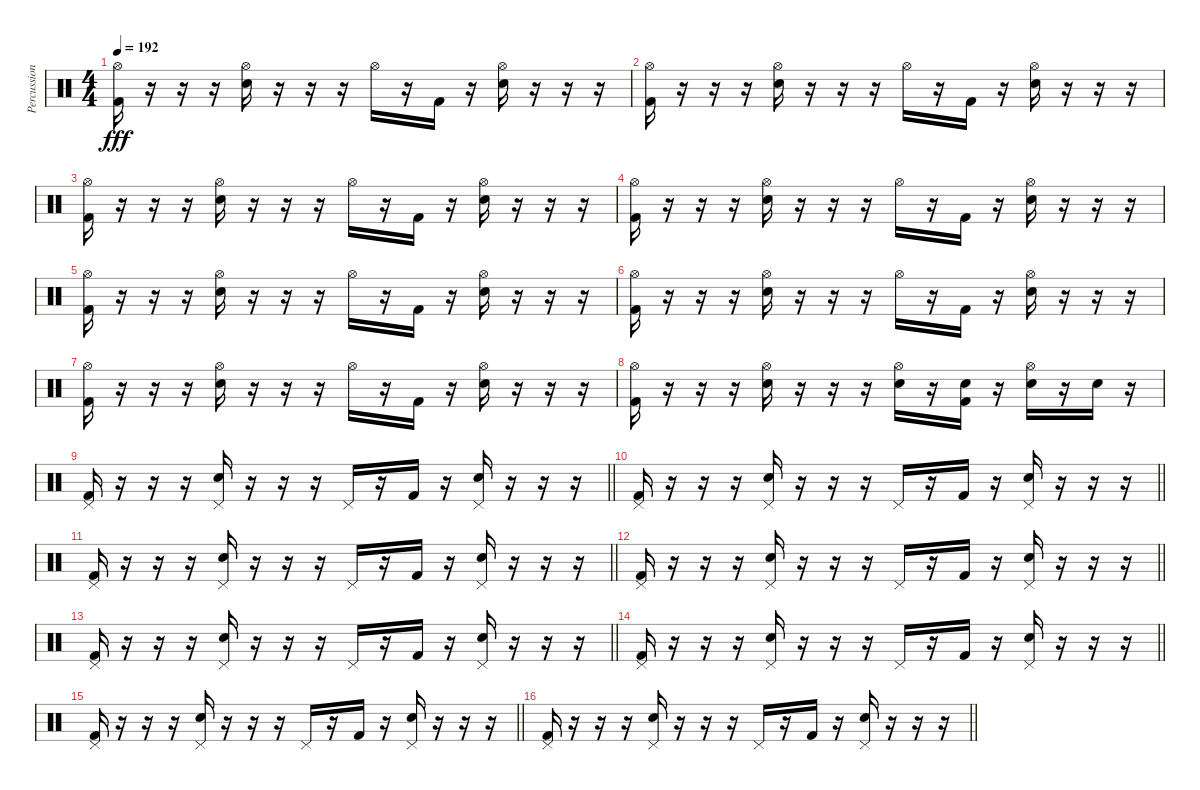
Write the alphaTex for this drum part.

\track ("Percussion" "Percussion") {instrument percussion}
\staff {score}
\articulation defaults
\ts (4 4)
\tempo 192
\clef neutral
\ks c
("Hi-Hat (open)" "Kick (hit) 2").16{dy fff} r.16 r.16 r.16 ("Hi-Hat (open)" "Electric Snare (hit)").16 r.16 r.16 r.16 "Hi-Hat (open)".16 r.16 "Kick (hit) 2".16 r.16 ("Hi-Hat (open)" "Electric Snare (hit)").16 r.16 r.16 r.16 |
("Hi-Hat (open)" "Kick (hit) 2").16 r.16 r.16 r.16 ("Hi-Hat (open)" "Electric Snare (hit)").16 r.16 r.16 r.16 "Hi-Hat (open)".16 r.16 "Kick (hit) 2".16 r.16 ("Hi-Hat (open)" "Electric Snare (hit)").16 r.16 r.16 r.16 |
("Hi-Hat (open)" "Kick (hit) 2").16 r.16 r.16 r.16 ("Hi-Hat (open)" "Electric Snare (hit)").16 r.16 r.16 r.16 "Hi-Hat (open)".16 r.16 "Kick (hit) 2".16 r.16 ("Hi-Hat (open)" "Electric Snare (hit)").16 r.16 r.16 r.16 |
("Hi-Hat (open)" "Kick (hit) 2").16 r.16 r.16 r.16 ("Hi-Hat (open)" "Electric Snare (hit)").16 r.16 r.16 r.16 "Hi-Hat (open)".16 r.16 "Kick (hit) 2".16 r.16 ("Hi-Hat (open)" "Electric Snare (hit)").16 r.16 r.16 r.16 |
("Hi-Hat (open)" "Kick (hit) 2").16 r.16 r.16 r.16 ("Hi-Hat (open)" "Electric Snare (hit)").16 r.16 r.16 r.16 "Hi-Hat (open)".16 r.16 "Kick (hit) 2".16 r.16 ("Hi-Hat (open)" "Electric Snare (hit)").16 r.16 r.16 r.16 |
("Hi-Hat (open)" "Kick (hit) 2").16 r.16 r.16 r.16 ("Hi-Hat (open)" "Electric Snare (hit)").16 r.16 r.16 r.16 "Hi-Hat (open)".16 r.16 "Kick (hit) 2".16 r.16 ("Hi-Hat (open)" "Electric Snare (hit)").16 r.16 r.16 r.16 |
("Hi-Hat (open)" "Kick (hit) 2").16 r.16 r.16 r.16 ("Hi-Hat (open)" "Electric Snare (hit)").16 r.16 r.16 r.16 "Hi-Hat (open)".16 r.16 "Kick (hit) 2".16 r.16 ("Hi-Hat (open)" "Electric Snare (hit)").16 r.16 r.16 r.16 |
("Hi-Hat (open)" "Kick (hit) 2").16 r.16 r.16 r.16 ("Hi-Hat (open)" "Electric Snare (hit)").16 r.16 r.16 r.16 ("Hi-Hat (open)" "Electric Snare (hit)").16 r.16 ("Electric Snare (hit)" "Kick (hit) 2").16 r.16 ("Hi-Hat (open)" "Electric Snare (hit)").16 r.16 "Electric Snare (hit)".16 r.16 |
\barLineRight lightlight
("Pedal Hi-Hat (hit)" "Kick (hit) 2").16 r.16 r.16 r.16 ("Pedal Hi-Hat (hit)" "Electric Snare (hit)").16 r.16 r.16 r.16 "Pedal Hi-Hat (hit)".16 r.16 "Kick (hit) 2".16 r.16 ("Pedal Hi-Hat (hit)" "Electric Snare (hit)").16 r.16 r.16 r.16 |
\barLineRight lightlight
("Pedal Hi-Hat (hit)" "Kick (hit) 2").16 r.16 r.16 r.16 ("Pedal Hi-Hat (hit)" "Electric Snare (hit)").16 r.16 r.16 r.16 "Pedal Hi-Hat (hit)".16 r.16 "Kick (hit) 2".16 r.16 ("Pedal Hi-Hat (hit)" "Electric Snare (hit)").16 r.16 r.16 r.16 |
\barLineRight lightlight
("Pedal Hi-Hat (hit)" "Kick (hit) 2").16 r.16 r.16 r.16 ("Pedal Hi-Hat (hit)" "Electric Snare (hit)").16 r.16 r.16 r.16 "Pedal Hi-Hat (hit)".16 r.16 "Kick (hit) 2".16 r.16 ("Pedal Hi-Hat (hit)" "Electric Snare (hit)").16 r.16 r.16 r.16 |
\barLineRight lightlight
("Pedal Hi-Hat (hit)" "Kick (hit) 2").16 r.16 r.16 r.16 ("Pedal Hi-Hat (hit)" "Electric Snare (hit)").16 r.16 r.16 r.16 "Pedal Hi-Hat (hit)".16 r.16 "Kick (hit) 2".16 r.16 ("Pedal Hi-Hat (hit)" "Electric Snare (hit)").16 r.16 r.16 r.16 |
\barLineRight lightlight
("Pedal Hi-Hat (hit)" "Kick (hit) 2").16 r.16 r.16 r.16 ("Pedal Hi-Hat (hit)" "Electric Snare (hit)").16 r.16 r.16 r.16 "Pedal Hi-Hat (hit)".16 r.16 "Kick (hit) 2".16 r.16 ("Pedal Hi-Hat (hit)" "Electric Snare (hit)").16 r.16 r.16 r.16 |
\barLineRight lightlight
("Pedal Hi-Hat (hit)" "Kick (hit) 2").16 r.16 r.16 r.16 ("Pedal Hi-Hat (hit)" "Electric Snare (hit)").16 r.16 r.16 r.16 "Pedal Hi-Hat (hit)".16 r.16 "Kick (hit) 2".16 r.16 ("Pedal Hi-Hat (hit)" "Electric Snare (hit)").16 r.16 r.16 r.16 |
\barLineRight lightlight
("Pedal Hi-Hat (hit)" "Kick (hit) 2").16 r.16 r.16 r.16 ("Pedal Hi-Hat (hit)" "Electric Snare (hit)").16 r.16 r.16 r.16 "Pedal Hi-Hat (hit)".16 r.16 "Kick (hit) 2".16 r.16 ("Pedal Hi-Hat (hit)" "Electric Snare (hit)").16 r.16 r.16 r.16 |
\barLineRight lightlight
("Pedal Hi-Hat (hit)" "Kick (hit) 2").16 r.16 r.16 r.16 ("Pedal Hi-Hat (hit)" "Electric Snare (hit)").16 r.16 r.16 r.16 "Pedal Hi-Hat (hit)".16 r.16 "Kick (hit) 2".16 r.16 ("Pedal Hi-Hat (hit)" "Electric Snare (hit)").16 r.16 r.16 r.16
